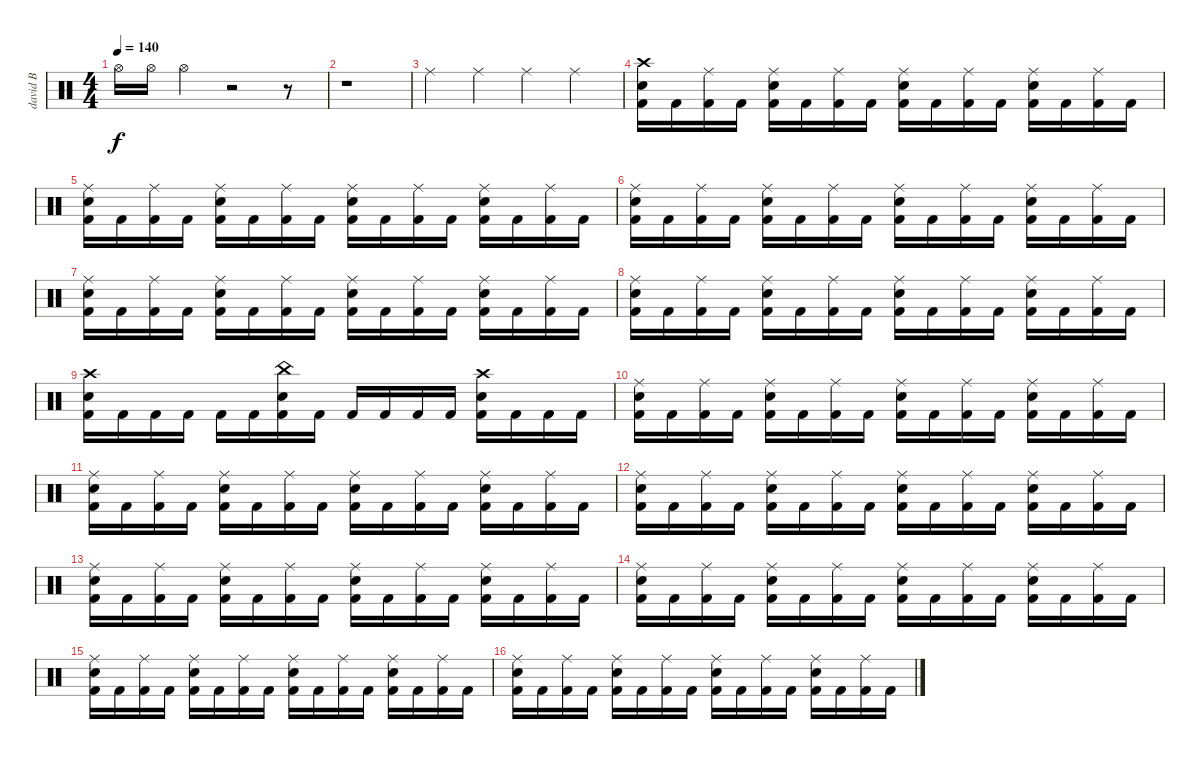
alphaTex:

\track ("david B" "david B") {instrument percussion}
\staff {score}
\articulation defaults
\ts (4 4)
\tempo 140
\clef neutral
\ks c "Hi-Hat (open)".16{dy f} "Hi-Hat (open)".16 "Hi-Hat (open)".4
r.2 r.8 |
r.1 |
"Ride (middle)".4 "Ride (middle)".4 "Ride (middle)".4 "Ride (middle)".4 |
("Crash high (hit)" "Electric Snare (hit)" "Kick (hit) 2").16 "Kick (hit) 2".16 ("Ride (middle)" "Kick (hit) 2").16 "Kick (hit) 2".16 ("Ride (middle)" "Electric Snare (hit)" "Kick (hit) 2").16 "Kick (hit) 2".16 ("Ride (middle)" "Kick (hit) 2").16 "Kick (hit) 2".16 ("Ride (middle)" "Electric Snare (hit)" "Kick (hit) 2").16 "Kick (hit) 2".16 ("Ride (middle)" "Kick (hit) 2").16 "Kick (hit) 2".16 ("Ride (middle)" "Electric Snare (hit)" "Kick (hit) 2").16 "Kick (hit) 2".16 ("Ride (middle)" "Kick (hit) 2").16 "Kick (hit) 2".16 |
("Ride (middle)" "Electric Snare (hit)" "Kick (hit) 2").16 "Kick (hit) 2".16 ("Ride (middle)" "Kick (hit) 2").16 "Kick (hit) 2".16 ("Ride (middle)" "Electric Snare (hit)" "Kick (hit) 2").16 "Kick (hit) 2".16 ("Ride (middle)" "Kick (hit) 2").16 "Kick (hit) 2".16 ("Ride (middle)" "Electric Snare (hit)" "Kick (hit) 2").16 "Kick (hit) 2".16 ("Ride (middle)" "Kick (hit) 2").16 "Kick (hit) 2".16 ("Ride (middle)" "Electric Snare (hit)" "Kick (hit) 2").16 "Kick (hit) 2".16 ("Ride (middle)" "Kick (hit) 2").16 "Kick (hit) 2".16 |
("Ride (middle)" "Electric Snare (hit)" "Kick (hit) 2").16 "Kick (hit) 2".16 ("Ride (middle)" "Kick (hit) 2").16 "Kick (hit) 2".16 ("Ride (middle)" "Electric Snare (hit)" "Kick (hit) 2").16 "Kick (hit) 2".16 ("Ride (middle)" "Kick (hit) 2").16 "Kick (hit) 2".16 ("Ride (middle)" "Electric Snare (hit)" "Kick (hit) 2").16 "Kick (hit) 2".16 ("Ride (middle)" "Kick (hit) 2").16 "Kick (hit) 2".16 ("Ride (middle)" "Electric Snare (hit)" "Kick (hit) 2").16 "Kick (hit) 2".16 ("Ride (middle)" "Kick (hit) 2").16 "Kick (hit) 2".16 |
("Ride (middle)" "Electric Snare (hit)" "Kick (hit) 2").16 "Kick (hit) 2".16 ("Ride (middle)" "Kick (hit) 2").16 "Kick (hit) 2".16 ("Ride (middle)" "Electric Snare (hit)" "Kick (hit) 2").16 "Kick (hit) 2".16 ("Ride (middle)" "Kick (hit) 2").16 "Kick (hit) 2".16 ("Ride (middle)" "Electric Snare (hit)" "Kick (hit) 2").16 "Kick (hit) 2".16 ("Ride (middle)" "Kick (hit) 2").16 "Kick (hit) 2".16 ("Ride (middle)" "Electric Snare (hit)" "Kick (hit) 2").16 "Kick (hit) 2".16 ("Ride (middle)" "Kick (hit) 2").16 "Kick (hit) 2".16 |
("Ride (middle)" "Electric Snare (hit)" "Kick (hit) 2").16 "Kick (hit) 2".16 ("Ride (middle)" "Kick (hit) 2").16 "Kick (hit) 2".16 ("Ride (middle)" "Electric Snare (hit)" "Kick (hit) 2").16 "Kick (hit) 2".16 ("Ride (middle)" "Kick (hit) 2").16 "Kick (hit) 2".16 ("Ride (middle)" "Electric Snare (hit)" "Kick (hit) 2").16 "Kick (hit) 2".16 ("Ride (middle)" "Kick (hit) 2").16 "Kick (hit) 2".16 ("Ride (middle)" "Electric Snare (hit)" "Kick (hit) 2").16 "Kick (hit) 2".16 ("Ride (middle)" "Kick (hit) 2").16 "Kick (hit) 2".16 |
("Crash high (hit)" "Electric Snare (hit)" "Kick (hit) 2").16 "Kick (hit) 2".16 "Kick (hit) 2".16 "Kick (hit) 2".16 "Kick (hit) 2".16 "Kick (hit) 2".16 ("China (hit)" "Electric Snare (hit)" "Kick (hit) 2").16 "Kick (hit) 2".16 "Kick (hit) 2".16 "Kick (hit) 2".16 "Kick (hit) 2".16 "Kick (hit) 2".16 ("Crash high (hit)" "Electric Snare (hit)" "Kick (hit) 2").16 "Kick (hit) 2".16 "Kick (hit) 2".16 "Kick (hit) 2".16 |
("Ride (middle)" "Electric Snare (hit)" "Kick (hit) 2").16 "Kick (hit) 2".16 ("Ride (middle)" "Kick (hit) 2").16 "Kick (hit) 2".16 ("Ride (middle)" "Electric Snare (hit)" "Kick (hit) 2").16 "Kick (hit) 2".16 ("Ride (middle)" "Kick (hit) 2").16 "Kick (hit) 2".16 ("Ride (middle)" "Electric Snare (hit)" "Kick (hit) 2").16 "Kick (hit) 2".16 ("Ride (middle)" "Kick (hit) 2").16 "Kick (hit) 2".16 ("Ride (middle)" "Electric Snare (hit)" "Kick (hit) 2").16 "Kick (hit) 2".16 ("Ride (middle)" "Kick (hit) 2").16 "Kick (hit) 2".16 |
("Ride (middle)" "Electric Snare (hit)" "Kick (hit) 2").16 "Kick (hit) 2".16 ("Ride (middle)" "Kick (hit) 2").16 "Kick (hit) 2".16 ("Ride (middle)" "Electric Snare (hit)" "Kick (hit) 2").16 "Kick (hit) 2".16 ("Ride (middle)" "Kick (hit) 2").16 "Kick (hit) 2".16 ("Ride (middle)" "Electric Snare (hit)" "Kick (hit) 2").16 "Kick (hit) 2".16 ("Ride (middle)" "Kick (hit) 2").16 "Kick (hit) 2".16 ("Ride (middle)" "Electric Snare (hit)" "Kick (hit) 2").16 "Kick (hit) 2".16 ("Ride (middle)" "Kick (hit) 2").16 "Kick (hit) 2".16 |
("Ride (middle)" "Electric Snare (hit)" "Kick (hit) 2").16 "Kick (hit) 2".16 ("Ride (middle)" "Kick (hit) 2").16 "Kick (hit) 2".16 ("Ride (middle)" "Electric Snare (hit)" "Kick (hit) 2").16 "Kick (hit) 2".16 ("Ride (middle)" "Kick (hit) 2").16 "Kick (hit) 2".16 ("Ride (middle)" "Electric Snare (hit)" "Kick (hit) 2").16 "Kick (hit) 2".16 ("Ride (middle)" "Kick (hit) 2").16 "Kick (hit) 2".16 ("Ride (middle)" "Electric Snare (hit)" "Kick (hit) 2").16 "Kick (hit) 2".16 ("Ride (middle)" "Kick (hit) 2").16 "Kick (hit) 2".16 |
("Ride (middle)" "Electric Snare (hit)" "Kick (hit) 2").16 "Kick (hit) 2".16 ("Ride (middle)" "Kick (hit) 2").16 "Kick (hit) 2".16 ("Ride (middle)" "Electric Snare (hit)" "Kick (hit) 2").16 "Kick (hit) 2".16 ("Ride (middle)" "Kick (hit) 2").16 "Kick (hit) 2".16 ("Ride (middle)" "Electric Snare (hit)" "Kick (hit) 2").16 "Kick (hit) 2".16 ("Ride (middle)" "Kick (hit) 2").16 "Kick (hit) 2".16 ("Ride (middle)" "Electric Snare (hit)" "Kick (hit) 2").16 "Kick (hit) 2".16 ("Ride (middle)" "Kick (hit) 2").16 "Kick (hit) 2".16 |
("Ride (middle)" "Electric Snare (hit)" "Kick (hit) 2").16 "Kick (hit) 2".16 ("Ride (middle)" "Kick (hit) 2").16 "Kick (hit) 2".16 ("Ride (middle)" "Electric Snare (hit)" "Kick (hit) 2").16 "Kick (hit) 2".16 ("Ride (middle)" "Kick (hit) 2").16 "Kick (hit) 2".16 ("Ride (middle)" "Electric Snare (hit)" "Kick (hit) 2").16 "Kick (hit) 2".16 ("Ride (middle)" "Kick (hit) 2").16 "Kick (hit) 2".16 ("Ride (middle)" "Electric Snare (hit)" "Kick (hit) 2").16 "Kick (hit) 2".16 ("Ride (middle)" "Kick (hit) 2").16 "Kick (hit) 2".16 |
("Ride (middle)" "Electric Snare (hit)" "Kick (hit) 2").16 "Kick (hit) 2".16 ("Ride (middle)" "Kick (hit) 2").16 "Kick (hit) 2".16 ("Ride (middle)" "Electric Snare (hit)" "Kick (hit) 2").16 "Kick (hit) 2".16 ("Ride (middle)" "Kick (hit) 2").16 "Kick (hit) 2".16 ("Ride (middle)" "Electric Snare (hit)" "Kick (hit) 2").16 "Kick (hit) 2".16 ("Ride (middle)" "Kick (hit) 2").16 "Kick (hit) 2".16 ("Ride (middle)" "Electric Snare (hit)" "Kick (hit) 2").16 "Kick (hit) 2".16 ("Ride (middle)" "Kick (hit) 2").16 "Kick (hit) 2".16 |
("Ride (middle)" "Electric Snare (hit)" "Kick (hit) 2").16 "Kick (hit) 2".16 ("Ride (middle)" "Kick (hit) 2").16 "Kick (hit) 2".16 ("Ride (middle)" "Electric Snare (hit)" "Kick (hit) 2").16 "Kick (hit) 2".16 ("Ride (middle)" "Kick (hit) 2").16 "Kick (hit) 2".16 ("Ride (middle)" "Electric Snare (hit)" "Kick (hit) 2").16 "Kick (hit) 2".16 ("Ride (middle)" "Kick (hit) 2").16 "Kick (hit) 2".16 ("Ride (middle)" "Electric Snare (hit)" "Kick (hit) 2").16 "Kick (hit) 2".16 ("Ride (middle)" "Kick (hit) 2").16 "Kick (hit) 2".16
